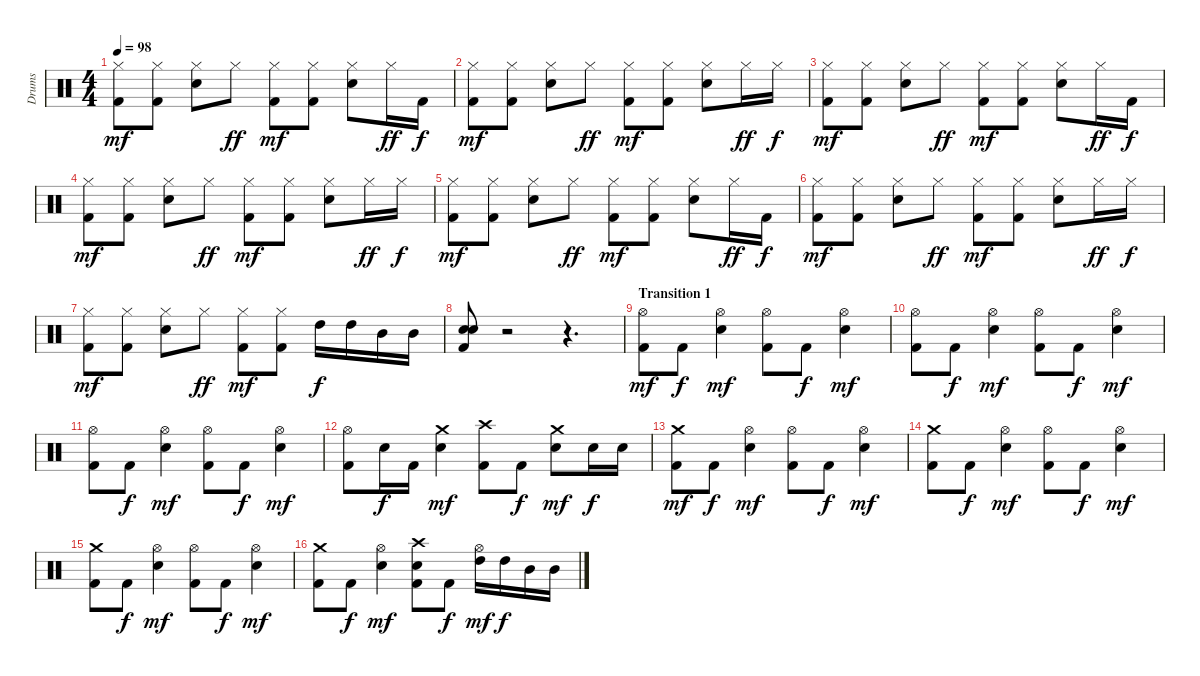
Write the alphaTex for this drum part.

\track ("Drums" "Drums") {instrument percussion}
\staff {score}
\articulation defaults
\ts (4 4)
\tempo 98
\clef neutral
\ks c
("Hi-Hat (closed)" "Kick (hit) 2").8{dy mf} ("Hi-Hat (closed)" "Kick (hit) 2").8 ("Hi-Hat (closed)" "Snare (hit) 2").8 "Hi-Hat (closed)".8{dy ff} ("Hi-Hat (closed)" "Kick (hit) 2").8{dy mf} ("Hi-Hat (closed)" "Kick (hit) 2").8 ("Hi-Hat (closed)" "Snare (hit) 2").8 "Hi-Hat (closed)".16{dy ff} "Kick (hit) 2".16{dy f} |
("Hi-Hat (closed)" "Kick (hit) 2").8{dy mf} ("Hi-Hat (closed)" "Kick (hit) 2").8 ("Hi-Hat (closed)" "Snare (hit) 2").8 "Hi-Hat (closed)".8{dy ff} ("Hi-Hat (closed)" "Kick (hit) 2").8{dy mf} ("Hi-Hat (closed)" "Kick (hit) 2").8 ("Hi-Hat (closed)" "Snare (hit) 2").8 "Hi-Hat (closed)".16{dy ff} "Hi-Hat (closed)".16{dy f} |
("Hi-Hat (closed)" "Kick (hit) 2").8{dy mf} ("Hi-Hat (closed)" "Kick (hit) 2").8 ("Hi-Hat (closed)" "Snare (hit) 2").8 "Hi-Hat (closed)".8{dy ff} ("Hi-Hat (closed)" "Kick (hit) 2").8{dy mf} ("Hi-Hat (closed)" "Kick (hit) 2").8 ("Hi-Hat (closed)" "Snare (hit) 2").8 "Hi-Hat (closed)".16{dy ff} "Kick (hit) 2".16{dy f} |
("Hi-Hat (closed)" "Kick (hit) 2").8{dy mf} ("Hi-Hat (closed)" "Kick (hit) 2").8 ("Hi-Hat (closed)" "Snare (hit) 2").8 "Hi-Hat (closed)".8{dy ff} ("Hi-Hat (closed)" "Kick (hit) 2").8{dy mf} ("Hi-Hat (closed)" "Kick (hit) 2").8 ("Hi-Hat (closed)" "Snare (hit) 2").8 "Hi-Hat (closed)".16{dy ff} "Hi-Hat (closed)".16{dy f} |
("Hi-Hat (closed)" "Kick (hit) 2").8{dy mf} ("Hi-Hat (closed)" "Kick (hit) 2").8 ("Hi-Hat (closed)" "Snare (hit) 2").8 "Hi-Hat (closed)".8{dy ff} ("Hi-Hat (closed)" "Kick (hit) 2").8{dy mf} ("Hi-Hat (closed)" "Kick (hit) 2").8 ("Hi-Hat (closed)" "Snare (hit) 2").8 "Hi-Hat (closed)".16{dy ff} "Kick (hit) 2".16{dy f} |
("Hi-Hat (closed)" "Kick (hit) 2").8{dy mf} ("Hi-Hat (closed)" "Kick (hit) 2").8 ("Hi-Hat (closed)" "Snare (hit) 2").8 "Hi-Hat (closed)".8{dy ff} ("Hi-Hat (closed)" "Kick (hit) 2").8{dy mf} ("Hi-Hat (closed)" "Kick (hit) 2").8 ("Hi-Hat (closed)" "Snare (hit) 2").8 "Hi-Hat (closed)".16{dy ff} "Hi-Hat (closed)".16{dy f} |
("Hi-Hat (closed)" "Kick (hit) 2").8{dy mf} ("Hi-Hat (closed)" "Kick (hit) 2").8 ("Hi-Hat (closed)" "Snare (hit) 2").8 "Hi-Hat (closed)".8{dy ff} ("Hi-Hat (closed)" "Kick (hit) 2").8{dy mf} ("Hi-Hat (closed)" "Kick (hit) 2").8 "High Tom (hit)".16{dy f} "High Tom (hit)".16 "Mid Tom (hit)".16 "Mid Tom (hit)".16 |
("Snare (hit) 2" "Snare (hit) 2" "Kick (hit) 2").8 r.2 r.4{d} |
\section ("" "Transition 1")
("Hi-Hat (open)" "Kick (hit) 2").8{dy mf} "Kick (hit) 2".8{dy f} ("Hi-Hat (open)" "Snare (hit) 2").4{dy mf} ("Hi-Hat (open)" "Kick (hit) 2").8 "Kick (hit) 2".8{dy f} ("Hi-Hat (open)" "Snare (hit) 2").4{dy mf} |
("Hi-Hat (open)" "Kick (hit) 2").8 "Kick (hit) 2".8{dy f} ("Hi-Hat (open)" "Snare (hit) 2").4{dy mf} ("Hi-Hat (open)" "Kick (hit) 2").8 "Kick (hit) 2".8{dy f} ("Hi-Hat (open)" "Snare (hit) 2").4{dy mf} |
("Hi-Hat (open)" "Kick (hit) 2").8 "Kick (hit) 2".8{dy f} ("Hi-Hat (open)" "Snare (hit) 2").4{dy mf} ("Hi-Hat (open)" "Kick (hit) 2").8 "Kick (hit) 2".8{dy f} ("Hi-Hat (open)" "Snare (hit) 2").4{dy mf} |
("Hi-Hat (open)" "Kick (hit) 2").8 "Snare (hit) 2".16{dy f} "Kick (hit) 2".16 ("Crash medium (hit)" "Snare (hit) 2").4{dy mf} ("Crash high (hit)" "Kick (hit) 2").8 "Kick (hit) 2".8{dy f} ("Crash medium (hit)" "Snare (hit) 2").8{dy mf} "Snare (hit) 2".16{dy f} "Snare (hit) 2".16 |
("Crash medium (hit)" "Kick (hit) 2").8{dy mf} "Kick (hit) 2".8{dy f} ("Hi-Hat (open)" "Snare (hit) 2").4{dy mf} ("Hi-Hat (open)" "Kick (hit) 2").8 "Kick (hit) 2".8{dy f} ("Hi-Hat (open)" "Snare (hit) 2").4{dy mf} |
("Crash medium (hit)" "Kick (hit) 2").8 "Kick (hit) 2".8{dy f} ("Hi-Hat (open)" "Snare (hit) 2").4{dy mf} ("Hi-Hat (open)" "Kick (hit) 2").8 "Kick (hit) 2".8{dy f} ("Hi-Hat (open)" "Snare (hit) 2").4{dy mf} |
("Crash medium (hit)" "Kick (hit) 2").8 "Kick (hit) 2".8{dy f} ("Hi-Hat (open)" "Snare (hit) 2").4{dy mf} ("Hi-Hat (open)" "Kick (hit) 2").8 "Kick (hit) 2".8{dy f} ("Hi-Hat (open)" "Snare (hit) 2").4{dy mf} |
("Crash medium (hit)" "Kick (hit) 2").8 "Kick (hit) 2".8{dy f} ("Hi-Hat (open)" "Snare (hit) 2").4{dy mf} ("Crash high (hit)" "Snare (hit) 2" "Kick (hit) 2").8 "Kick (hit) 2".8{dy f} ("Hi-Hat (open)" "High Tom (hit)").16{dy mf} "High Tom (hit)".16{dy f} "Mid Tom (hit)".16 "Mid Tom (hit)".16
